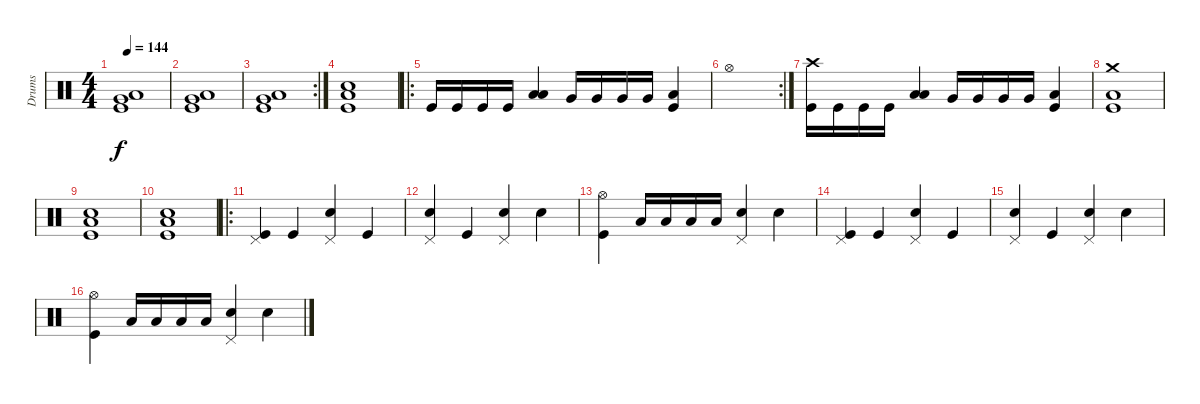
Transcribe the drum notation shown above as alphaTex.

\track ("Drums" "Drums") {instrument percussion}
\staff {score}
\articulation defaults
\ts (4 4)
\tempo 144
\clef neutral
\ks c
("Low Tom (hit)" "Very Low Tom (hit)" "Kick (hit)").1{dy f} |
("Low Tom (hit)" "Very Low Tom (hit)" "Kick (hit)").1 |
\rc 2
("Low Tom (hit)" "Very Low Tom (hit)" "Kick (hit)").1 |
("Snare (hit) 2" "Low Floor Tom (hit)" "Kick (hit)").1 |
\ro "Kick (hit)".16 "Kick (hit)".16 "Kick (hit)".16 "Kick (hit)".16
("Low Floor Tom (hit)" "Low Tom (hit)").4 "Very Low Tom (hit)".16 "Very Low Tom (hit)".16 "Very Low Tom (hit)".16 "Very Low Tom (hit)".16 ("Low Tom (hit)" "Kick (hit)").4 |
\rc 2 "Hi-Hat (open)".1
|
("Crash high (hit)" "Kick (hit)").16 "Kick (hit)".16 "Kick (hit)".16 "Kick (hit)".16 ("Low Floor Tom (hit)" "Low Tom (hit)").4 "Very Low Tom (hit)".16 "Very Low Tom (hit)".16 "Very Low Tom (hit)".16 "Very Low Tom (hit)".16 ("Low Tom (hit)" "Kick (hit)").4 |
("Crash medium (hit)" "Low Tom (hit)" "Kick (hit)").1 |
("Snare (hit) 2" "Low Floor Tom (hit)" "Kick (hit)").1 |
("Snare (hit) 2" "Low Floor Tom (hit)" "Kick (hit)").1 |
\ro
("Pedal Hi-Hat (hit)" "Kick (hit)").4 "Kick (hit)".4 ("Pedal Hi-Hat (hit)" "Snare (hit) 2").4 "Kick (hit)".4 |
("Pedal Hi-Hat (hit)" "Snare (hit) 2").4 "Kick (hit)".4 ("Pedal Hi-Hat (hit)" "Snare (hit) 2").4 "Snare (hit) 2".4 |
("Hi-Hat (open)" "Kick (hit)").4 "Low Tom (hit)".16 "Low Tom (hit)".16 "Low Tom (hit)".16 "Low Tom (hit)".16 ("Pedal Hi-Hat (hit)" "Snare (hit) 2").4 "Snare (hit) 2".4 |
("Pedal Hi-Hat (hit)" "Kick (hit)").4 "Kick (hit)".4 ("Pedal Hi-Hat (hit)" "Snare (hit) 2").4 "Kick (hit)".4 |
("Pedal Hi-Hat (hit)" "Snare (hit) 2").4 "Kick (hit)".4 ("Pedal Hi-Hat (hit)" "Snare (hit) 2").4 "Snare (hit) 2".4 |
("Hi-Hat (open)" "Kick (hit)").4 "Low Tom (hit)".16 "Low Tom (hit)".16 "Low Tom (hit)".16 "Low Tom (hit)".16 ("Pedal Hi-Hat (hit)" "Snare (hit) 2").4 "Snare (hit) 2".4
